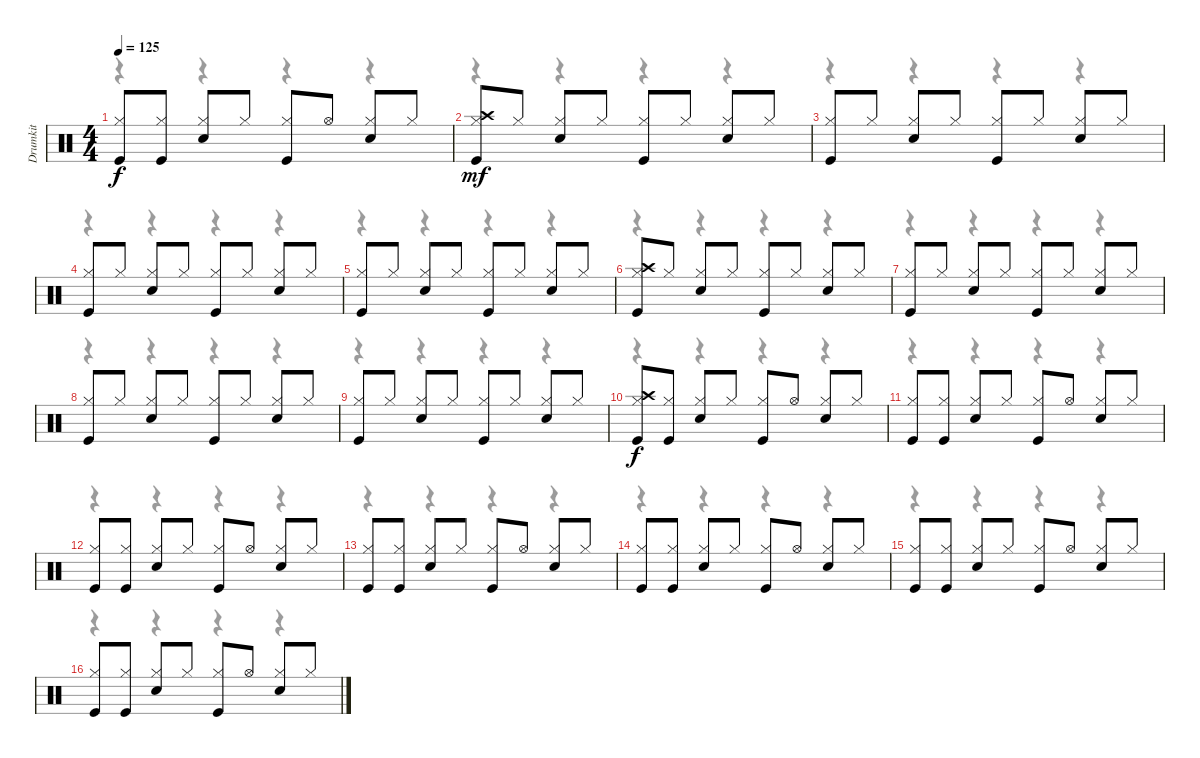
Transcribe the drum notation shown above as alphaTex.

\track ("Drumkit" "Drumkit") {instrument percussion}
\staff {score}
\articulation defaults
\voice
\ts (4 4)
\tempo 125
\clef neutral
\ks c
("Hi-Hat (closed)" "Kick (hit)").8{dy f} ("Hi-Hat (closed)" "Kick (hit)").8 ("Hi-Hat (closed)" "Snare (hit) 2").8 "Hi-Hat (closed)".8 ("Hi-Hat (closed)" "Kick (hit)").8 "Hi-Hat (open)".8 ("Hi-Hat (closed)" "Snare (hit) 2").8 "Hi-Hat (closed)".8 |
("Crash high (hit)" "Hi-Hat (closed)" "Kick (hit)").8{dy mf} "Hi-Hat (closed)".8 ("Hi-Hat (closed)" "Snare (hit) 2").8 "Hi-Hat (closed)".8 ("Hi-Hat (closed)" "Kick (hit)").8 "Hi-Hat (closed)".8 ("Hi-Hat (closed)" "Snare (hit) 2").8 "Hi-Hat (closed)".8 |
("Kick (hit)" "Hi-Hat (closed)").8 "Hi-Hat (closed)".8 ("Snare (hit) 2" "Hi-Hat (closed)").8 "Hi-Hat (closed)".8 ("Kick (hit)" "Hi-Hat (closed)").8 "Hi-Hat (closed)".8 ("Snare (hit) 2" "Hi-Hat (closed)").8 "Hi-Hat (closed)".8 |
("Kick (hit)" "Hi-Hat (closed)").8 "Hi-Hat (closed)".8 ("Hi-Hat (closed)" "Snare (hit) 2").8 "Hi-Hat (closed)".8 ("Hi-Hat (closed)" "Kick (hit)").8 "Hi-Hat (closed)".8 ("Hi-Hat (closed)" "Snare (hit) 2").8 "Hi-Hat (closed)".8 |
("Hi-Hat (closed)" "Kick (hit)").8 "Hi-Hat (closed)".8 ("Hi-Hat (closed)" "Snare (hit) 2").8 "Hi-Hat (closed)".8 ("Hi-Hat (closed)" "Kick (hit)").8 "Hi-Hat (closed)".8 ("Hi-Hat (closed)" "Snare (hit) 2").8 "Hi-Hat (closed)".8 |
("Crash high (hit)" "Hi-Hat (closed)" "Kick (hit)").8 "Hi-Hat (closed)".8 ("Hi-Hat (closed)" "Snare (hit) 2").8 "Hi-Hat (closed)".8 ("Hi-Hat (closed)" "Kick (hit)").8 "Hi-Hat (closed)".8 ("Hi-Hat (closed)" "Snare (hit) 2").8 "Hi-Hat (closed)".8 |
("Kick (hit)" "Hi-Hat (closed)").8 "Hi-Hat (closed)".8 ("Snare (hit) 2" "Hi-Hat (closed)").8 "Hi-Hat (closed)".8 ("Kick (hit)" "Hi-Hat (closed)").8 "Hi-Hat (closed)".8 ("Snare (hit) 2" "Hi-Hat (closed)").8 "Hi-Hat (closed)".8 |
("Kick (hit)" "Hi-Hat (closed)").8 "Hi-Hat (closed)".8 ("Hi-Hat (closed)" "Snare (hit) 2").8 "Hi-Hat (closed)".8 ("Hi-Hat (closed)" "Kick (hit)").8 "Hi-Hat (closed)".8 ("Hi-Hat (closed)" "Snare (hit) 2").8 "Hi-Hat (closed)".8 |
("Hi-Hat (closed)" "Kick (hit)").8 "Hi-Hat (closed)".8 ("Hi-Hat (closed)" "Snare (hit) 2").8 "Hi-Hat (closed)".8 ("Hi-Hat (closed)" "Kick (hit)").8 "Hi-Hat (closed)".8 ("Hi-Hat (closed)" "Snare (hit) 2").8 "Hi-Hat (closed)".8 |
("Hi-Hat (closed)" "Kick (hit)" "Crash high (hit)").8{dy f} ("Hi-Hat (closed)" "Kick (hit)").8 ("Hi-Hat (closed)" "Snare (hit) 2").8 "Hi-Hat (closed)".8 ("Hi-Hat (closed)" "Kick (hit)").8 "Hi-Hat (open)".8 ("Hi-Hat (closed)" "Snare (hit) 2").8 "Hi-Hat (closed)".8 |
("Hi-Hat (closed)" "Kick (hit)").8 ("Hi-Hat (closed)" "Kick (hit)").8 ("Hi-Hat (closed)" "Snare (hit) 2").8 "Hi-Hat (closed)".8 ("Hi-Hat (closed)" "Kick (hit)").8 "Hi-Hat (open)".8 ("Hi-Hat (closed)" "Snare (hit) 2").8 "Hi-Hat (closed)".8 |
("Hi-Hat (closed)" "Kick (hit)").8 ("Hi-Hat (closed)" "Kick (hit)").8 ("Hi-Hat (closed)" "Snare (hit) 2").8 "Hi-Hat (closed)".8 ("Hi-Hat (closed)" "Kick (hit)").8 "Hi-Hat (open)".8 ("Hi-Hat (closed)" "Snare (hit) 2").8 "Hi-Hat (closed)".8 |
("Hi-Hat (closed)" "Kick (hit)").8 ("Hi-Hat (closed)" "Kick (hit)").8 ("Hi-Hat (closed)" "Snare (hit) 2").8 "Hi-Hat (closed)".8 ("Hi-Hat (closed)" "Kick (hit)").8 "Hi-Hat (open)".8 ("Hi-Hat (closed)" "Snare (hit) 2").8 "Hi-Hat (closed)".8 |
("Hi-Hat (closed)" "Kick (hit)").8 ("Hi-Hat (closed)" "Kick (hit)").8 ("Hi-Hat (closed)" "Snare (hit) 2").8 "Hi-Hat (closed)".8 ("Hi-Hat (closed)" "Kick (hit)").8 "Hi-Hat (open)".8 ("Hi-Hat (closed)" "Snare (hit) 2").8 "Hi-Hat (closed)".8 |
("Hi-Hat (closed)" "Kick (hit)").8 ("Hi-Hat (closed)" "Kick (hit)").8 ("Hi-Hat (closed)" "Snare (hit) 2").8 "Hi-Hat (closed)".8 ("Hi-Hat (closed)" "Kick (hit)").8 "Hi-Hat (open)".8 ("Hi-Hat (closed)" "Snare (hit) 2").8 "Hi-Hat (closed)".8 |
("Hi-Hat (closed)" "Kick (hit)").8 ("Hi-Hat (closed)" "Kick (hit)").8 ("Hi-Hat (closed)" "Snare (hit) 2").8 "Hi-Hat (closed)".8 ("Hi-Hat (closed)" "Kick (hit)").8 "Hi-Hat (open)".8 ("Hi-Hat (closed)" "Snare (hit) 2").8 "Hi-Hat (closed)".8
\voice
\clef neutral
\ottava regular
\simile none
\ks c
r.4{dy f} r.4 r.4 r.4 |
r.4 r.4 r.4 r.4 |
r.4 r.4 r.4 r.4 |
r.4 r.4 r.4 r.4 |
r.4 r.4 r.4 r.4 |
r.4 r.4 r.4 r.4 |
r.4 r.4 r.4 r.4 |
r.4 r.4 r.4 r.4 |
r.4 r.4 r.4 r.4 |
r.4 r.4 r.4 r.4 |
r.4 r.4 r.4 r.4 |
r.4 r.4 r.4 r.4 |
r.4 r.4 r.4 r.4 |
r.4 r.4 r.4 r.4 |
r.4 r.4 r.4 r.4 |
r.4 r.4 r.4 r.4
